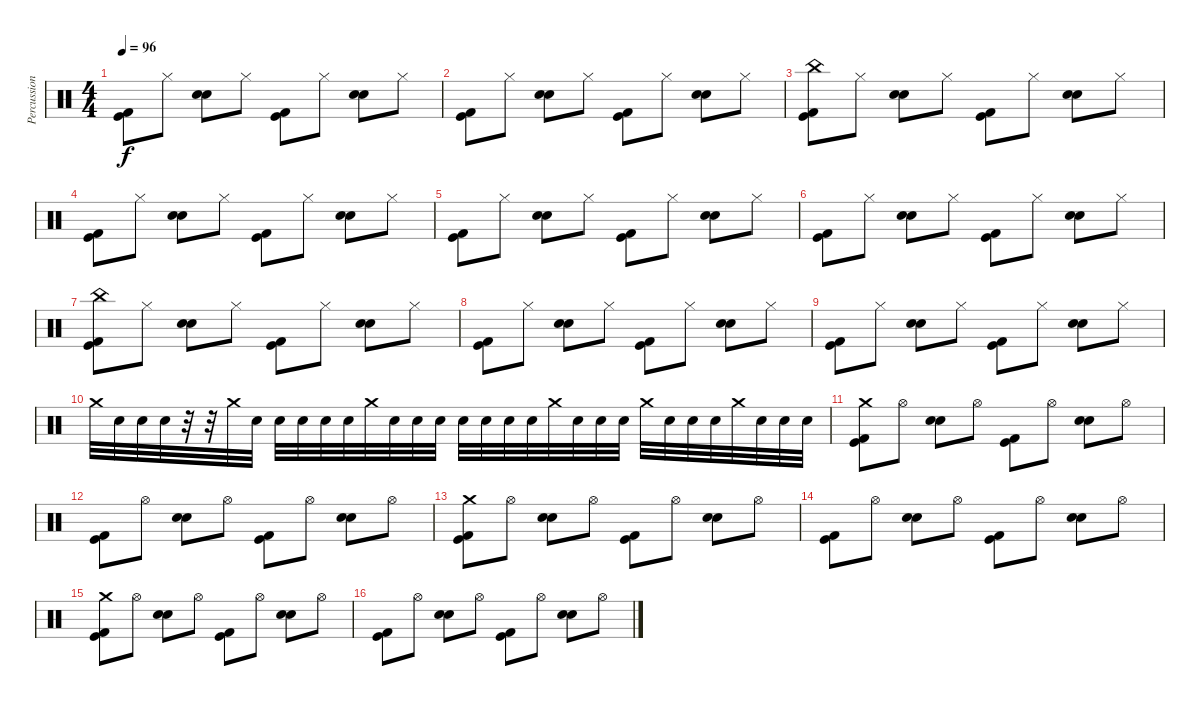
\track ("Percussion" "Percussion") {instrument percussion}
\staff {score}
\articulation defaults
\ts (4 4)
\tempo 96
\clef neutral
\ks c
("Kick (hit) 2" "Kick (hit)").8{dy f} "Hi-Hat (closed)".8 ("Snare (hit) 2" "Electric Snare (hit)").8 "Hi-Hat (closed)".8 ("Kick (hit)" "Kick (hit) 2").8 "Hi-Hat (closed)".8 ("Electric Snare (hit)" "Snare (hit) 2").8 "Hi-Hat (closed)".8 |
("Kick (hit) 2" "Kick (hit)").8 "Hi-Hat (closed)".8 ("Snare (hit) 2" "Electric Snare (hit)").8 "Hi-Hat (closed)".8 ("Kick (hit)" "Kick (hit) 2").8 "Hi-Hat (closed)".8 ("Electric Snare (hit)" "Snare (hit) 2").8 "Hi-Hat (closed)".8 |
("China (hit)" "Kick (hit) 2" "Kick (hit)").8 "Hi-Hat (closed)".8 ("Snare (hit) 2" "Electric Snare (hit)").8 "Hi-Hat (closed)".8 ("Kick (hit)" "Kick (hit) 2").8 "Hi-Hat (closed)".8 ("Electric Snare (hit)" "Snare (hit) 2").8 "Hi-Hat (closed)".8 |
("Kick (hit) 2" "Kick (hit)").8 "Hi-Hat (closed)".8 ("Snare (hit) 2" "Electric Snare (hit)").8 "Hi-Hat (closed)".8 ("Kick (hit)" "Kick (hit) 2").8 "Hi-Hat (closed)".8 ("Electric Snare (hit)" "Snare (hit) 2").8 "Hi-Hat (closed)".8 |
("Kick (hit) 2" "Kick (hit)").8 "Hi-Hat (closed)".8 ("Snare (hit) 2" "Electric Snare (hit)").8 "Hi-Hat (closed)".8 ("Kick (hit)" "Kick (hit) 2").8 "Hi-Hat (closed)".8 ("Electric Snare (hit)" "Snare (hit) 2").8 "Hi-Hat (closed)".8 |
("Kick (hit) 2" "Kick (hit)").8 "Hi-Hat (closed)".8 ("Snare (hit) 2" "Electric Snare (hit)").8 "Hi-Hat (closed)".8 ("Kick (hit)" "Kick (hit) 2").8 "Hi-Hat (closed)".8 ("Electric Snare (hit)" "Snare (hit) 2").8 "Hi-Hat (closed)".8 |
("China (hit)" "Kick (hit) 2" "Kick (hit)").8 "Hi-Hat (closed)".8 ("Snare (hit) 2" "Electric Snare (hit)").8 "Hi-Hat (closed)".8 ("Kick (hit)" "Kick (hit) 2").8 "Hi-Hat (closed)".8 ("Electric Snare (hit)" "Snare (hit) 2").8 "Hi-Hat (closed)".8 |
("Kick (hit) 2" "Kick (hit)").8 "Hi-Hat (closed)".8 ("Snare (hit) 2" "Electric Snare (hit)").8 "Hi-Hat (closed)".8 ("Kick (hit)" "Kick (hit) 2").8 "Hi-Hat (closed)".8 ("Electric Snare (hit)" "Snare (hit) 2").8 "Hi-Hat (closed)".8 |
("Kick (hit) 2" "Kick (hit)").8 "Hi-Hat (closed)".8 ("Snare (hit) 2" "Electric Snare (hit)").8 "Hi-Hat (closed)".8 ("Kick (hit)" "Kick (hit) 2").8 "Hi-Hat (closed)".8 ("Electric Snare (hit)" "Snare (hit) 2").8 "Hi-Hat (closed)".8 |
"Crash medium (hit)".32 "Snare (hit)".32 "Snare (hit)".32 "Snare (hit)".32 r.32 r.32 "Crash medium (hit)".32 "Snare (hit)".32 "Snare (hit)".32 "Snare (hit)".32 "Snare (hit)".32 "Snare (hit)".32 "Crash medium (hit)".32 "Snare (hit)".32 "Snare (hit)".32 "Snare (hit)".32 "Snare (hit)".32 "Snare (hit)".32 "Snare (hit)".32 "Snare (hit)".32 "Crash medium (hit)".32 "Snare (hit)".32 "Snare (hit)".32 "Snare (hit)".32 "Crash medium (hit)".32 "Snare (hit)".32 "Snare (hit)".32 "Snare (hit)".32 "Crash medium (hit)".32 "Snare (hit)".32 "Snare (hit)".32 "Snare (hit)".32 |
("Crash medium (hit)" "Kick (hit) 2" "Kick (hit)").8 "Hi-Hat (open)".8 ("Snare (hit) 2" "Electric Snare (hit)").8 "Hi-Hat (open)".8 ("Kick (hit)" "Kick (hit) 2").8 "Hi-Hat (open)".8 ("Electric Snare (hit)" "Snare (hit) 2").8 "Hi-Hat (open)".8 |
("Kick (hit) 2" "Kick (hit)").8 "Hi-Hat (open)".8 ("Snare (hit) 2" "Electric Snare (hit)").8 "Hi-Hat (open)".8 ("Kick (hit)" "Kick (hit) 2").8 "Hi-Hat (open)".8 ("Electric Snare (hit)" "Snare (hit) 2").8 "Hi-Hat (open)".8 |
("Crash medium (hit)" "Kick (hit) 2" "Kick (hit)").8 "Hi-Hat (open)".8 ("Snare (hit) 2" "Electric Snare (hit)").8 "Hi-Hat (open)".8 ("Kick (hit)" "Kick (hit) 2").8 "Hi-Hat (open)".8 ("Electric Snare (hit)" "Snare (hit) 2").8 "Hi-Hat (open)".8 |
("Kick (hit) 2" "Kick (hit)").8 "Hi-Hat (open)".8 ("Snare (hit) 2" "Electric Snare (hit)").8 "Hi-Hat (open)".8 ("Kick (hit)" "Kick (hit) 2").8 "Hi-Hat (open)".8 ("Electric Snare (hit)" "Snare (hit) 2").8 "Hi-Hat (open)".8 |
("Crash medium (hit)" "Kick (hit) 2" "Kick (hit)").8 "Hi-Hat (open)".8 ("Snare (hit) 2" "Electric Snare (hit)").8 "Hi-Hat (open)".8 ("Kick (hit)" "Kick (hit) 2").8 "Hi-Hat (open)".8 ("Electric Snare (hit)" "Snare (hit) 2").8 "Hi-Hat (open)".8 |
("Kick (hit) 2" "Kick (hit)").8 "Hi-Hat (open)".8 ("Snare (hit) 2" "Electric Snare (hit)").8 "Hi-Hat (open)".8 ("Kick (hit)" "Kick (hit) 2").8 "Hi-Hat (open)".8 ("Electric Snare (hit)" "Snare (hit) 2").8 "Hi-Hat (open)".8
